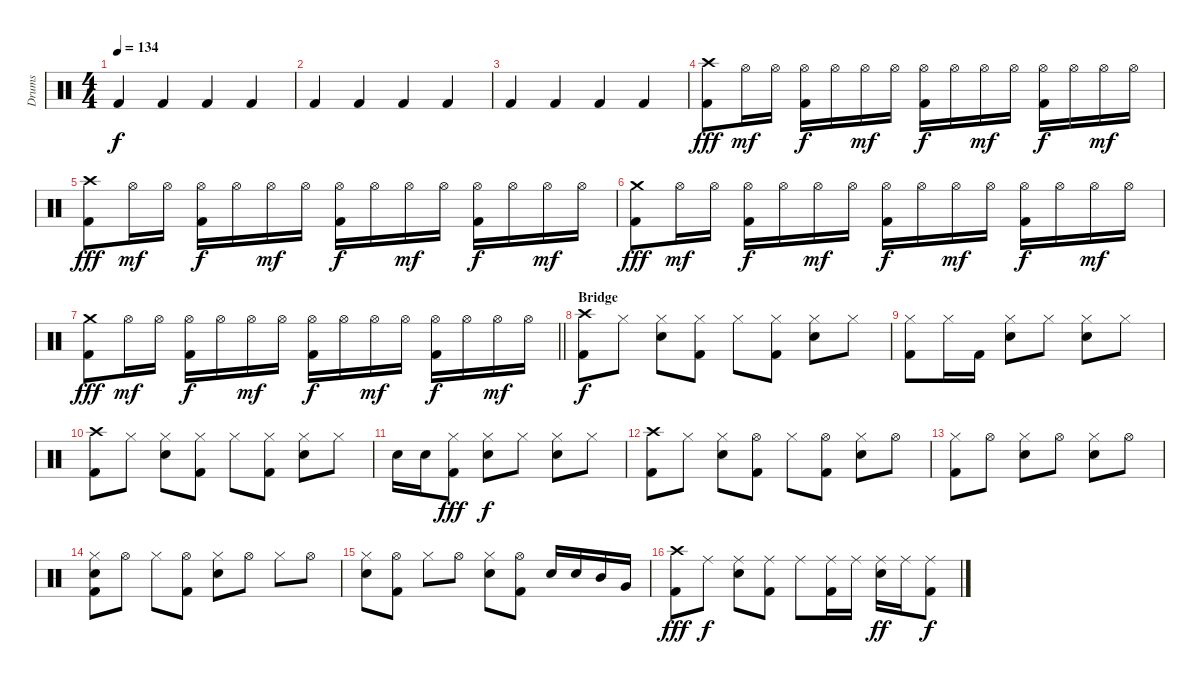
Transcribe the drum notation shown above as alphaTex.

\track ("Drums" "Drums") {instrument percussion}
\staff {score}
\articulation defaults
\ts (4 4)
\tempo 134
\clef neutral
\ks c "Kick (hit) 2".4{dy f} "Kick (hit) 2".4 "Kick (hit) 2".4 "Kick (hit) 2".4
|
"Kick (hit) 2".4 "Kick (hit) 2".4 "Kick (hit) 2".4 "Kick (hit) 2".4 |
"Kick (hit) 2".4 "Kick (hit) 2".4 "Kick (hit) 2".4 "Kick (hit) 2".4 |
("Crash high (hit)" "Kick (hit) 2").8{dy fff} "Hi-Hat (open)".16{dy mf} "Hi-Hat (open)".16 ("Hi-Hat (open)" "Kick (hit) 2").16{dy f} "Hi-Hat (open)".16 "Hi-Hat (open)".16{dy mf} "Hi-Hat (open)".16 ("Hi-Hat (open)" "Kick (hit) 2").16{dy f} "Hi-Hat (open)".16 "Hi-Hat (open)".16{dy mf} "Hi-Hat (open)".16 ("Hi-Hat (open)" "Kick (hit) 2").16{dy f} "Hi-Hat (open)".16 "Hi-Hat (open)".16{dy mf} "Hi-Hat (open)".16 |
("Crash high (hit)" "Kick (hit) 2").8{dy fff} "Hi-Hat (open)".16{dy mf} "Hi-Hat (open)".16 ("Hi-Hat (open)" "Kick (hit) 2").16{dy f} "Hi-Hat (open)".16 "Hi-Hat (open)".16{dy mf} "Hi-Hat (open)".16 ("Hi-Hat (open)" "Kick (hit) 2").16{dy f} "Hi-Hat (open)".16 "Hi-Hat (open)".16{dy mf} "Hi-Hat (open)".16 ("Hi-Hat (open)" "Kick (hit) 2").16{dy f} "Hi-Hat (open)".16 "Hi-Hat (open)".16{dy mf} "Hi-Hat (open)".16 |
("Crash medium (hit)" "Kick (hit) 2").8{dy fff} "Hi-Hat (open)".16{dy mf} "Hi-Hat (open)".16 ("Hi-Hat (open)" "Kick (hit) 2").16{dy f} "Hi-Hat (open)".16 "Hi-Hat (open)".16{dy mf} "Hi-Hat (open)".16 ("Hi-Hat (open)" "Kick (hit) 2").16{dy f} "Hi-Hat (open)".16 "Hi-Hat (open)".16{dy mf} "Hi-Hat (open)".16 ("Hi-Hat (open)" "Kick (hit) 2").16{dy f} "Hi-Hat (open)".16 "Hi-Hat (open)".16{dy mf} "Hi-Hat (open)".16 |
\barLineRight lightlight
("Crash medium (hit)" "Kick (hit) 2").8{dy fff} "Hi-Hat (open)".16{dy mf} "Hi-Hat (open)".16 ("Hi-Hat (open)" "Kick (hit) 2").16{dy f} "Hi-Hat (open)".16 "Hi-Hat (open)".16{dy mf} "Hi-Hat (open)".16 ("Hi-Hat (open)" "Kick (hit) 2").16{dy f} "Hi-Hat (open)".16 "Hi-Hat (open)".16{dy mf} "Hi-Hat (open)".16 ("Hi-Hat (open)" "Kick (hit) 2").16{dy f} "Hi-Hat (open)".16 "Hi-Hat (open)".16{dy mf} "Hi-Hat (open)".16 |
\section ("" "Bridge")
("Crash high (hit)" "Kick (hit) 2").8{dy f} "Hi-Hat (closed)".8 ("Hi-Hat (closed)" "Snare (hit) 2").8 ("Hi-Hat (closed)" "Kick (hit) 2").8 "Hi-Hat (closed)".8 ("Hi-Hat (closed)" "Kick (hit) 2").8 ("Hi-Hat (closed)" "Snare (hit) 2").8 "Hi-Hat (closed)".8 |
("Hi-Hat (closed)" "Kick (hit) 2").8 "Hi-Hat (closed)".16 "Kick (hit) 2".16 ("Hi-Hat (closed)" "Snare (hit) 2").8 "Hi-Hat (closed)".8 ("Hi-Hat (closed)" "Snare (hit) 2").8 "Hi-Hat (closed)".8 |
("Crash high (hit)" "Kick (hit) 2").8 "Hi-Hat (closed)".8 ("Hi-Hat (closed)" "Snare (hit) 2").8 ("Hi-Hat (closed)" "Kick (hit) 2").8 "Hi-Hat (closed)".8 ("Hi-Hat (closed)" "Kick (hit) 2").8 ("Hi-Hat (closed)" "Snare (hit) 2").8 "Hi-Hat (closed)".8 |
"Snare (hit) 2".16 "Snare (hit) 2".16 ("Hi-Hat (closed)" "Kick (hit) 2").8{dy fff} ("Hi-Hat (closed)" "Snare (hit) 2").8{dy f} "Hi-Hat (closed)".8 ("Hi-Hat (closed)" "Snare (hit) 2").8 "Hi-Hat (closed)".8 |
("Crash high (hit)" "Kick (hit) 2").8 "Hi-Hat (closed)".8 ("Hi-Hat (closed)" "Snare (hit) 2").8 ("Hi-Hat (open)" "Kick (hit) 2").8 "Hi-Hat (closed)".8 ("Hi-Hat (open)" "Kick (hit) 2").8 ("Hi-Hat (closed)" "Snare (hit) 2").8 "Hi-Hat (open)".8 |
("Hi-Hat (closed)" "Kick (hit) 2").8 "Hi-Hat (open)".8 ("Hi-Hat (closed)" "Snare (hit) 2").8 "Hi-Hat (open)".8 ("Hi-Hat (closed)" "Snare (hit) 2").8 "Hi-Hat (open)".8 |
("Hi-Hat (closed)" "Snare (hit) 2" "Kick (hit) 2").8 "Hi-Hat (open)".8 "Hi-Hat (closed)".8 ("Hi-Hat (open)" "Kick (hit) 2").8 ("Hi-Hat (closed)" "Snare (hit) 2").8 "Hi-Hat (open)".8 "Hi-Hat (closed)".8 "Hi-Hat (open)".8 |
("Hi-Hat (closed)" "Snare (hit) 2").8 ("Hi-Hat (open)" "Kick (hit) 2").8 "Hi-Hat (closed)".8 "Hi-Hat (open)".8 ("Hi-Hat (closed)" "Snare (hit) 2").8 ("Hi-Hat (open)" "Kick (hit) 2").8 "Snare (hit) 2".16 "Snare (hit) 2".16 "Mid Tom (hit)".16 "Very Low Tom (hit)".16 |
("Crash high (hit)" "Kick (hit) 2").8{dy fff} "Ride (middle)".8{dy f} ("Ride (middle)" "Snare (hit) 2").8 ("Ride (middle)" "Kick (hit) 2").8 "Ride (middle)".8 ("Ride (middle)" "Kick (hit) 2").16 "Ride (middle)".16 ("Ride (middle)" "Snare (hit) 2").16{dy ff} "Ride (middle)".16 ("Ride (middle)" "Kick (hit) 2").8{dy f}
